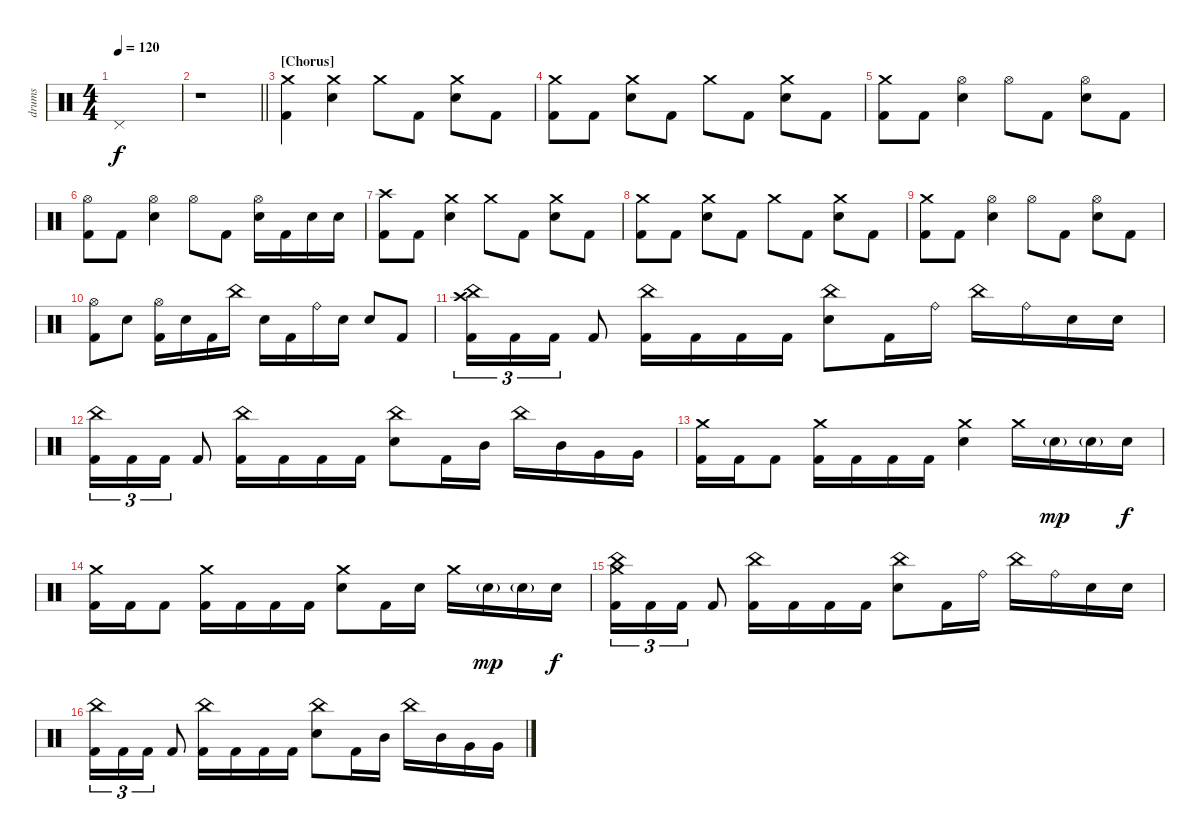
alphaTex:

\track ("drums" "drums") {instrument percussion}
\staff {score}
\articulation defaults
\ts (4 4)
\tempo 120
\clef neutral
\ks c "Pedal Hi-Hat (hit)".1{dy f}
|
\barLineRight lightlight
r.1 |
\section ("" "[Chorus]")
("Crash medium (hit)" "Kick (hit) 2").4 ("Crash medium (hit)" "Electric Snare (hit)").4 "Crash medium (hit)".8 "Kick (hit) 2".8 ("Crash medium (hit)" "Electric Snare (hit)").8 "Kick (hit) 2".8 |
("Crash medium (hit)" "Kick (hit) 2").8 "Kick (hit) 2".8 ("Crash medium (hit)" "Electric Snare (hit)").8 "Kick (hit) 2".8 "Crash medium (hit)".8 "Kick (hit) 2".8 ("Crash medium (hit)" "Electric Snare (hit)").8 "Kick (hit) 2".8 |
("Crash medium (hit)" "Kick (hit) 2").8 "Kick (hit) 2".8 ("Hi-Hat (open)" "Electric Snare (hit)").4 "Hi-Hat (open)".8 "Kick (hit) 2".8 ("Hi-Hat (open)" "Electric Snare (hit)").8 "Kick (hit) 2".8 |
("Hi-Hat (open)" "Kick (hit) 2").8 "Kick (hit) 2".8 ("Hi-Hat (open)" "Electric Snare (hit)").4 "Hi-Hat (open)".8 "Kick (hit) 2".8 ("Hi-Hat (open)" "Electric Snare (hit)").16 "Kick (hit) 2".16 "Electric Snare (hit)".16 "Electric Snare (hit)".16 |
("Crash high (hit)" "Kick (hit) 2").8 "Kick (hit) 2".8 ("Crash medium (hit)" "Electric Snare (hit)").4 "Crash medium (hit)".8 "Kick (hit) 2".8 ("Crash medium (hit)" "Electric Snare (hit)").8 "Kick (hit) 2".8 |
("Crash medium (hit)" "Kick (hit) 2").8 "Kick (hit) 2".8 ("Crash medium (hit)" "Electric Snare (hit)").8 "Kick (hit) 2".8 "Crash medium (hit)".8 "Kick (hit) 2".8 ("Crash medium (hit)" "Electric Snare (hit)").8 "Kick (hit) 2".8 |
("Crash medium (hit)" "Kick (hit) 2").8 "Kick (hit) 2".8 ("Hi-Hat (open)" "Electric Snare (hit)").4 "Hi-Hat (open)".8 "Kick (hit) 2".8 ("Hi-Hat (open)" "Electric Snare (hit)").8 "Kick (hit) 2".8 |
("Hi-Hat (open)" "Kick (hit) 2").8 "Electric Snare (hit)".8 ("Hi-Hat (open)" "Kick (hit) 2").16 "Electric Snare (hit)".16 "Kick (hit) 2".16 "China (hit)".16 "Electric Snare (hit)".16 "Kick (hit) 2".16 "Ride (bell)".16 "Electric Snare (hit)".16 "Electric Snare (hit)".8 "Kick (hit) 2".8 |
("China (hit)" "Crash high (hit)" "Kick (hit) 2").16{tu (3 2)} "Kick (hit) 2".16{tu (3 2)} "Kick (hit) 2".16{tu (3 2)} "Kick (hit) 2".8 ("China (hit)" "Kick (hit) 2").16 "Kick (hit) 2".16 "Kick (hit) 2".16 "Kick (hit) 2".16 ("China (hit)" "Electric Snare (hit)").8 "Kick (hit) 2".16 "Ride (bell)".16 "China (hit)".16 "Ride (bell)".16 "Electric Snare (hit)".16 "Electric Snare (hit)".16 |
("China (hit)" "Kick (hit) 2").16{tu (3 2)} "Kick (hit) 2".16{tu (3 2)} "Kick (hit) 2".16{tu (3 2)} "Kick (hit) 2".8 ("China (hit)" "Kick (hit) 2").16 "Kick (hit) 2".16 "Kick (hit) 2".16 "Kick (hit) 2".16 ("China (hit)" "Electric Snare (hit)").8 "Kick (hit) 2".16 "Mid Tom (hit)".16 "China (hit)".16 "Mid Tom (hit)".16 "Very Low Tom (hit)".16 "Very Low Tom (hit)".16 |
("Crash medium (hit)" "Kick (hit) 2").16 "Kick (hit) 2".16 "Kick (hit) 2".8 ("Crash medium (hit)" "Kick (hit) 2").16 "Kick (hit) 2".16 "Kick (hit) 2".16 "Kick (hit) 2".16 ("Crash medium (hit)" "Electric Snare (hit)").4 "Crash medium (hit)".16 "Electric Snare (hit)"{g}.16{dy mp} "Electric Snare (hit)"{g}.16 "Electric Snare (hit)".16{dy f} |
("Crash medium (hit)" "Kick (hit) 2").16 "Kick (hit) 2".16 "Kick (hit) 2".8 ("Crash medium (hit)" "Kick (hit) 2").16 "Kick (hit) 2".16 "Kick (hit) 2".16 "Kick (hit) 2".16 ("Crash medium (hit)" "Electric Snare (hit)").8 "Kick (hit) 2".16 "Electric Snare (hit)".16 "Crash medium (hit)".16 "Electric Snare (hit)"{g}.16{dy mp} "Electric Snare (hit)"{g}.16 "Electric Snare (hit)".16{dy f} |
("Crash medium (hit)" "China (hit)" "Kick (hit) 2").16{tu (3 2)} "Kick (hit) 2".16{tu (3 2)} "Kick (hit) 2".16{tu (3 2)} "Kick (hit) 2".8 ("China (hit)" "Kick (hit) 2").16 "Kick (hit) 2".16 "Kick (hit) 2".16 "Kick (hit) 2".16 ("China (hit)" "Electric Snare (hit)").8 "Kick (hit) 2".16 "Ride (bell)".16 "China (hit)".16 "Ride (bell)".16 "Electric Snare (hit)".16 "Electric Snare (hit)".16 |
("China (hit)" "Kick (hit) 2").16{tu (3 2)} "Kick (hit) 2".16{tu (3 2)} "Kick (hit) 2".16{tu (3 2)} "Kick (hit) 2".8 ("China (hit)" "Kick (hit) 2").16 "Kick (hit) 2".16 "Kick (hit) 2".16 "Kick (hit) 2".16 ("China (hit)" "Electric Snare (hit)").8 "Kick (hit) 2".16 "Mid Tom (hit)".16 "China (hit)".16 "Mid Tom (hit)".16 "Very Low Tom (hit)".16 "Very Low Tom (hit)".16
